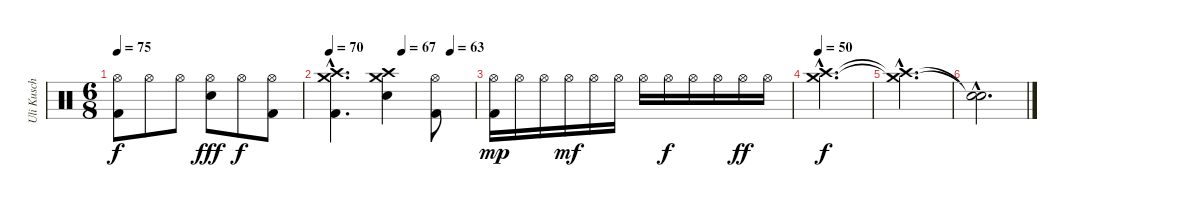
\track ("Uli Kusch" "Uli Kusch") {instrument percussion}
\staff {score}
\articulation defaults
\ts (6 8)
\tempo 75
\clef neutral
\ks c
("Hi-Hat (open)" "Kick (hit) 2").8{dy f} "Hi-Hat (open)".8 "Hi-Hat (open)".8 ("Hi-Hat (open)" "Electric Snare (hit)").8{dy fff} "Hi-Hat (open)".8{dy f} ("Hi-Hat (open)" "Kick (hit) 2").8 |
\tempo 70
\tempo (67 0.5)
\tempo (63 0.8333333333333334)
("Crash high (hit)"{hac} "Crash medium (hit)"{hac} "Kick (hit) 2"{hac}).4{d} ("Crash high (hit)" "Crash medium (hit)" "Electric Snare (hit)").4 ("Hi-Hat (open)" "Kick (hit) 2").8 |
("Hi-Hat (open)" "Kick (hit) 2").16{dy mp} "Hi-Hat (open)".16 "Hi-Hat (open)".16 "Hi-Hat (open)".16{dy mf} "Hi-Hat (open)".16 "Hi-Hat (open)".16 "Hi-Hat (open)".16 "Hi-Hat (open)".16{dy f} "Hi-Hat (open)".16 "Hi-Hat (open)".16 "Hi-Hat (open)".16{dy ff} "Hi-Hat (open)".16 |
\tempo 50
("Crash high (hit)"{hac} "Crash medium (hit)"{hac}).2{d dy f} |
("Crash high (hit)"{hac t} "Crash medium (hit)"{hac t}).2{d} |
("Snare (hit)"{hac t} "Snare (hit)"{hac t}).2{d}
